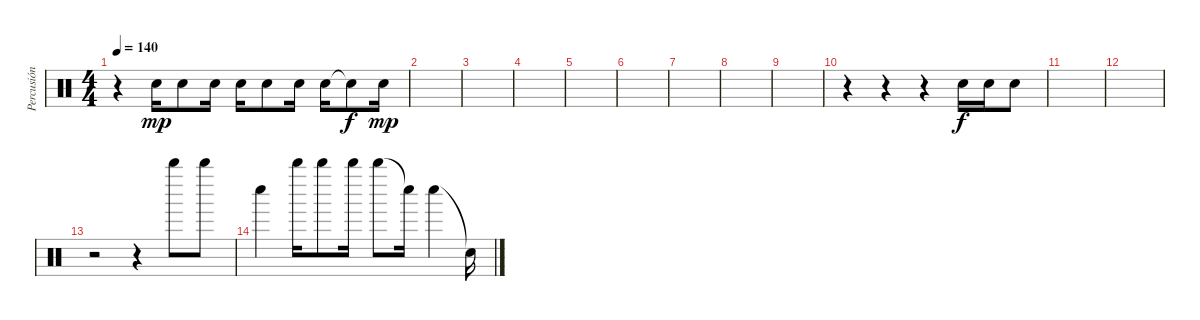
\track ("Percusión Fredy Caldas" "Percusión ") {instrument percussion}
\staff {score}
\articulation defaults
\ts (4 4)
\tempo 140
\clef neutral
\ks c
r.4{dy fff} "Snare (hit) 2".16{dy mp} "Snare (hit) 2".8 "Snare (hit) 2".16 "Snare (hit) 2".16 "Snare (hit) 2".8 "Snare (hit) 2".16 "Snare (hit) 2".16 "Snare (hit) 2"{t}.8{dy f} "Snare (hit) 2".16{dy mp} |
|
|
|
|
|
|
|
|
r.4 r.4 r.4 "Snare (hit) 2".16{dy f} "Snare (hit) 2".16 "Snare (hit) 2".8 |
|
|
r.2 r.4 "Whistle high (hit)".8 "Whistle high (hit)".8 |
"Whistle low (hit)".4 "Whistle high (hit)".16 "Whistle high (hit)".8 "Whistle high (hit)".16 "Whistle high (hit)".8 "Whistle low (hit)"{t}.16 "Whistle low (hit)".4 "Snare (hit)"{t}.16
